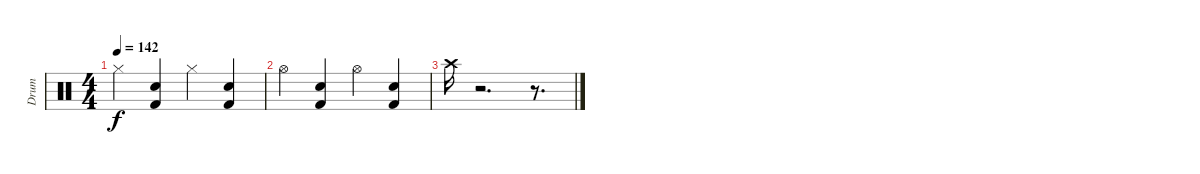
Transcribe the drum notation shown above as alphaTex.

\track ("Drum" "Drum") {instrument percussion}
\staff {score}
\articulation defaults
\ts (4 4)
\tempo 142
\clef neutral
\ks c "Hi-Hat (closed)".4{dy f}
("Electric Snare (hit)" "Kick (hit) 2").4 "Hi-Hat (closed)".4 ("Electric Snare (hit)" "Kick (hit) 2").4 |
"Hi-Hat (open)".4 ("Electric Snare (hit)" "Kick (hit) 2").4 "Hi-Hat (open)".4 ("Electric Snare (hit)" "Kick (hit) 2").4 |
"Crash high (hit)".16 r.2{d} r.8{d}
